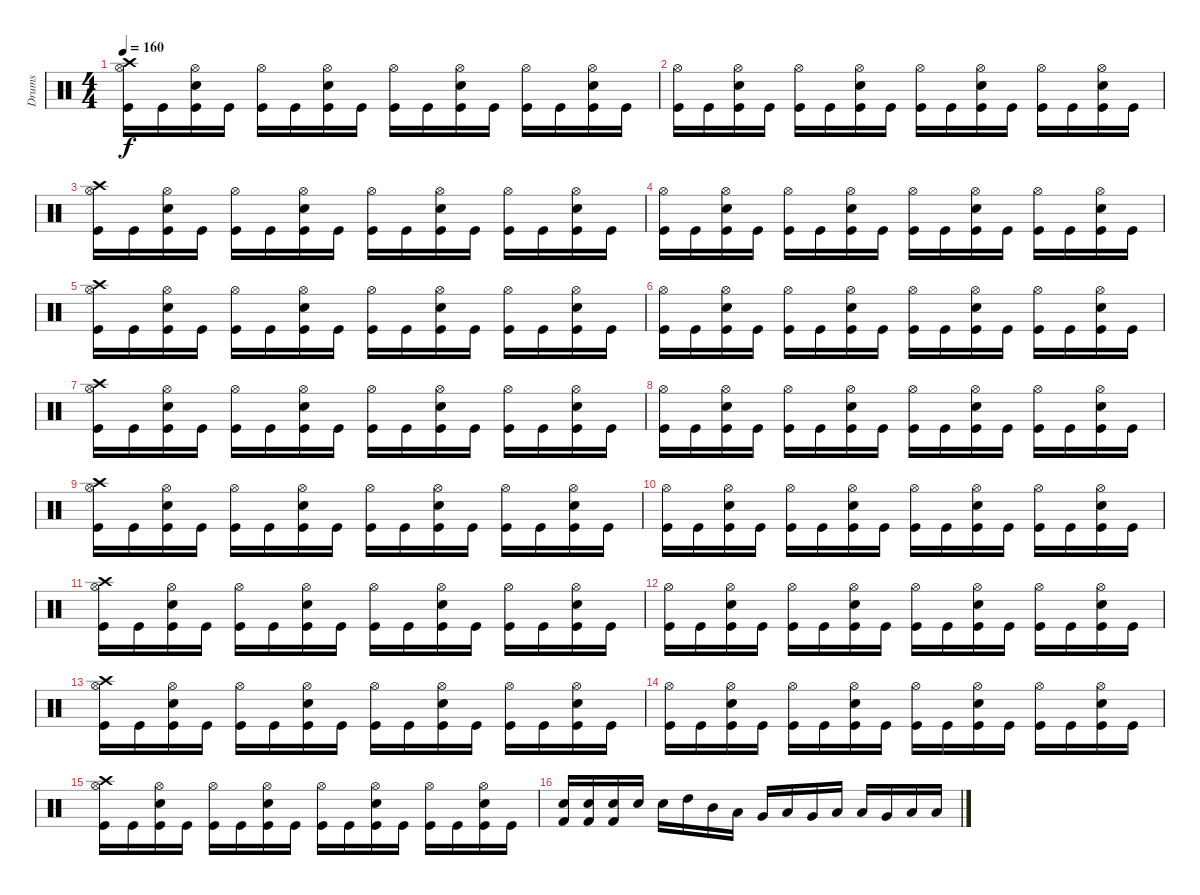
\track ("Drums" "Drums") {instrument percussion}
\staff {score}
\articulation defaults
\ts (4 4)
\tempo 160
\clef neutral
\ks c
("Crash high (hit)" "Hi-Hat (open)" "Kick (hit)").16{dy f} "Kick (hit)".16 ("Hi-Hat (open)" "Electric Snare (hit)" "Kick (hit)").16 "Kick (hit)".16 ("Hi-Hat (open)" "Kick (hit)").16 "Kick (hit)".16 ("Hi-Hat (open)" "Electric Snare (hit)" "Kick (hit)").16 "Kick (hit)".16 ("Hi-Hat (open)" "Kick (hit)").16 "Kick (hit)".16 ("Hi-Hat (open)" "Electric Snare (hit)" "Kick (hit)").16 "Kick (hit)".16 ("Hi-Hat (open)" "Kick (hit)").16 "Kick (hit)".16 ("Hi-Hat (open)" "Electric Snare (hit)" "Kick (hit)").16 "Kick (hit)".16 |
("Hi-Hat (open)" "Kick (hit)").16 "Kick (hit)".16 ("Hi-Hat (open)" "Electric Snare (hit)" "Kick (hit)").16 "Kick (hit)".16 ("Hi-Hat (open)" "Kick (hit)").16 "Kick (hit)".16 ("Hi-Hat (open)" "Electric Snare (hit)" "Kick (hit)").16 "Kick (hit)".16 ("Hi-Hat (open)" "Kick (hit)").16 "Kick (hit)".16 ("Hi-Hat (open)" "Electric Snare (hit)" "Kick (hit)").16 "Kick (hit)".16 ("Hi-Hat (open)" "Kick (hit)").16 "Kick (hit)".16 ("Hi-Hat (open)" "Electric Snare (hit)" "Kick (hit)").16 "Kick (hit)".16 |
("Crash high (hit)" "Hi-Hat (open)" "Kick (hit)").16 "Kick (hit)".16 ("Hi-Hat (open)" "Electric Snare (hit)" "Kick (hit)").16 "Kick (hit)".16 ("Hi-Hat (open)" "Kick (hit)").16 "Kick (hit)".16 ("Hi-Hat (open)" "Electric Snare (hit)" "Kick (hit)").16 "Kick (hit)".16 ("Hi-Hat (open)" "Kick (hit)").16 "Kick (hit)".16 ("Hi-Hat (open)" "Electric Snare (hit)" "Kick (hit)").16 "Kick (hit)".16 ("Hi-Hat (open)" "Kick (hit)").16 "Kick (hit)".16 ("Hi-Hat (open)" "Electric Snare (hit)" "Kick (hit)").16 "Kick (hit)".16 |
("Hi-Hat (open)" "Kick (hit)").16 "Kick (hit)".16 ("Hi-Hat (open)" "Electric Snare (hit)" "Kick (hit)").16 "Kick (hit)".16 ("Hi-Hat (open)" "Kick (hit)").16 "Kick (hit)".16 ("Hi-Hat (open)" "Electric Snare (hit)" "Kick (hit)").16 "Kick (hit)".16 ("Hi-Hat (open)" "Kick (hit)").16 "Kick (hit)".16 ("Hi-Hat (open)" "Electric Snare (hit)" "Kick (hit)").16 "Kick (hit)".16 ("Hi-Hat (open)" "Kick (hit)").16 "Kick (hit)".16 ("Hi-Hat (open)" "Electric Snare (hit)" "Kick (hit)").16 "Kick (hit)".16 |
("Crash high (hit)" "Hi-Hat (open)" "Kick (hit)").16 "Kick (hit)".16 ("Hi-Hat (open)" "Electric Snare (hit)" "Kick (hit)").16 "Kick (hit)".16 ("Hi-Hat (open)" "Kick (hit)").16 "Kick (hit)".16 ("Hi-Hat (open)" "Electric Snare (hit)" "Kick (hit)").16 "Kick (hit)".16 ("Hi-Hat (open)" "Kick (hit)").16 "Kick (hit)".16 ("Hi-Hat (open)" "Electric Snare (hit)" "Kick (hit)").16 "Kick (hit)".16 ("Hi-Hat (open)" "Kick (hit)").16 "Kick (hit)".16 ("Hi-Hat (open)" "Electric Snare (hit)" "Kick (hit)").16 "Kick (hit)".16 |
("Hi-Hat (open)" "Kick (hit)").16 "Kick (hit)".16 ("Hi-Hat (open)" "Electric Snare (hit)" "Kick (hit)").16 "Kick (hit)".16 ("Hi-Hat (open)" "Kick (hit)").16 "Kick (hit)".16 ("Hi-Hat (open)" "Electric Snare (hit)" "Kick (hit)").16 "Kick (hit)".16 ("Hi-Hat (open)" "Kick (hit)").16 "Kick (hit)".16 ("Hi-Hat (open)" "Electric Snare (hit)" "Kick (hit)").16 "Kick (hit)".16 ("Hi-Hat (open)" "Kick (hit)").16 "Kick (hit)".16 ("Hi-Hat (open)" "Electric Snare (hit)" "Kick (hit)").16 "Kick (hit)".16 |
("Crash high (hit)" "Hi-Hat (open)" "Kick (hit)").16 "Kick (hit)".16 ("Hi-Hat (open)" "Electric Snare (hit)" "Kick (hit)").16 "Kick (hit)".16 ("Hi-Hat (open)" "Kick (hit)").16 "Kick (hit)".16 ("Hi-Hat (open)" "Electric Snare (hit)" "Kick (hit)").16 "Kick (hit)".16 ("Hi-Hat (open)" "Kick (hit)").16 "Kick (hit)".16 ("Hi-Hat (open)" "Electric Snare (hit)" "Kick (hit)").16 "Kick (hit)".16 ("Hi-Hat (open)" "Kick (hit)").16 "Kick (hit)".16 ("Hi-Hat (open)" "Electric Snare (hit)" "Kick (hit)").16 "Kick (hit)".16 |
("Hi-Hat (open)" "Kick (hit)").16 "Kick (hit)".16 ("Hi-Hat (open)" "Electric Snare (hit)" "Kick (hit)").16 "Kick (hit)".16 ("Hi-Hat (open)" "Kick (hit)").16 "Kick (hit)".16 ("Hi-Hat (open)" "Electric Snare (hit)" "Kick (hit)").16 "Kick (hit)".16 ("Hi-Hat (open)" "Kick (hit)").16 "Kick (hit)".16 ("Hi-Hat (open)" "Electric Snare (hit)" "Kick (hit)").16 "Kick (hit)".16 ("Hi-Hat (open)" "Kick (hit)").16 "Kick (hit)".16 ("Hi-Hat (open)" "Electric Snare (hit)" "Kick (hit)").16 "Kick (hit)".16 |
("Crash high (hit)" "Hi-Hat (open)" "Kick (hit)").16 "Kick (hit)".16 ("Hi-Hat (open)" "Electric Snare (hit)" "Kick (hit)").16 "Kick (hit)".16 ("Hi-Hat (open)" "Kick (hit)").16 "Kick (hit)".16 ("Hi-Hat (open)" "Electric Snare (hit)" "Kick (hit)").16 "Kick (hit)".16 ("Hi-Hat (open)" "Kick (hit)").16 "Kick (hit)".16 ("Hi-Hat (open)" "Electric Snare (hit)" "Kick (hit)").16 "Kick (hit)".16 ("Hi-Hat (open)" "Kick (hit)").16 "Kick (hit)".16 ("Hi-Hat (open)" "Electric Snare (hit)" "Kick (hit)").16 "Kick (hit)".16 |
("Hi-Hat (open)" "Kick (hit)").16 "Kick (hit)".16 ("Hi-Hat (open)" "Electric Snare (hit)" "Kick (hit)").16 "Kick (hit)".16 ("Hi-Hat (open)" "Kick (hit)").16 "Kick (hit)".16 ("Hi-Hat (open)" "Electric Snare (hit)" "Kick (hit)").16 "Kick (hit)".16 ("Hi-Hat (open)" "Kick (hit)").16 "Kick (hit)".16 ("Hi-Hat (open)" "Electric Snare (hit)" "Kick (hit)").16 "Kick (hit)".16 ("Hi-Hat (open)" "Kick (hit)").16 "Kick (hit)".16 ("Hi-Hat (open)" "Electric Snare (hit)" "Kick (hit)").16 "Kick (hit)".16 |
("Crash high (hit)" "Hi-Hat (open)" "Kick (hit)").16 "Kick (hit)".16 ("Hi-Hat (open)" "Electric Snare (hit)" "Kick (hit)").16 "Kick (hit)".16 ("Hi-Hat (open)" "Kick (hit)").16 "Kick (hit)".16 ("Hi-Hat (open)" "Electric Snare (hit)" "Kick (hit)").16 "Kick (hit)".16 ("Hi-Hat (open)" "Kick (hit)").16 "Kick (hit)".16 ("Hi-Hat (open)" "Electric Snare (hit)" "Kick (hit)").16 "Kick (hit)".16 ("Hi-Hat (open)" "Kick (hit)").16 "Kick (hit)".16 ("Hi-Hat (open)" "Electric Snare (hit)" "Kick (hit)").16 "Kick (hit)".16 |
("Hi-Hat (open)" "Kick (hit)").16 "Kick (hit)".16 ("Hi-Hat (open)" "Electric Snare (hit)" "Kick (hit)").16 "Kick (hit)".16 ("Hi-Hat (open)" "Kick (hit)").16 "Kick (hit)".16 ("Hi-Hat (open)" "Electric Snare (hit)" "Kick (hit)").16 "Kick (hit)".16 ("Hi-Hat (open)" "Kick (hit)").16 "Kick (hit)".16 ("Hi-Hat (open)" "Electric Snare (hit)" "Kick (hit)").16 "Kick (hit)".16 ("Hi-Hat (open)" "Kick (hit)").16 "Kick (hit)".16 ("Hi-Hat (open)" "Electric Snare (hit)" "Kick (hit)").16 "Kick (hit)".16 |
("Crash high (hit)" "Hi-Hat (open)" "Kick (hit)").16 "Kick (hit)".16 ("Hi-Hat (open)" "Electric Snare (hit)" "Kick (hit)").16 "Kick (hit)".16 ("Hi-Hat (open)" "Kick (hit)").16 "Kick (hit)".16 ("Hi-Hat (open)" "Electric Snare (hit)" "Kick (hit)").16 "Kick (hit)".16 ("Hi-Hat (open)" "Kick (hit)").16 "Kick (hit)".16 ("Hi-Hat (open)" "Electric Snare (hit)" "Kick (hit)").16 "Kick (hit)".16 ("Hi-Hat (open)" "Kick (hit)").16 "Kick (hit)".16 ("Hi-Hat (open)" "Electric Snare (hit)" "Kick (hit)").16 "Kick (hit)".16 |
("Hi-Hat (open)" "Kick (hit)").16 "Kick (hit)".16 ("Hi-Hat (open)" "Electric Snare (hit)" "Kick (hit)").16 "Kick (hit)".16 ("Hi-Hat (open)" "Kick (hit)").16 "Kick (hit)".16 ("Hi-Hat (open)" "Electric Snare (hit)" "Kick (hit)").16 "Kick (hit)".16 ("Hi-Hat (open)" "Kick (hit)").16 "Kick (hit)".16 ("Hi-Hat (open)" "Electric Snare (hit)" "Kick (hit)").16 "Kick (hit)".16 ("Hi-Hat (open)" "Kick (hit)").16 "Kick (hit)".16 ("Hi-Hat (open)" "Electric Snare (hit)" "Kick (hit)").16 "Kick (hit)".16 |
("Crash high (hit)" "Hi-Hat (open)" "Kick (hit)").16 "Kick (hit)".16 ("Hi-Hat (open)" "Electric Snare (hit)" "Kick (hit)").16 "Kick (hit)".16 ("Hi-Hat (open)" "Kick (hit)").16 "Kick (hit)".16 ("Hi-Hat (open)" "Electric Snare (hit)" "Kick (hit)").16 "Kick (hit)".16 ("Hi-Hat (open)" "Kick (hit)").16 "Kick (hit)".16 ("Hi-Hat (open)" "Electric Snare (hit)" "Kick (hit)").16 "Kick (hit)".16 ("Hi-Hat (open)" "Kick (hit)").16 "Kick (hit)".16 ("Hi-Hat (open)" "Electric Snare (hit)" "Kick (hit)").16 "Kick (hit)".16 |
("Snare (hit) 2" "Kick (hit) 2").16 ("Electric Snare (hit)" "Kick (hit) 2").16 ("Electric Snare (hit)" "Kick (hit) 2").16 "Snare (hit) 2".16 "Snare (hit) 2".16 "High Tom (hit)".16 "Mid Tom (hit)".16 "Low Tom (hit)".16 "Very Low Tom (hit)".16 "Low Tom (hit)".16 "Very Low Tom (hit)".16 "Low Floor Tom (hit)".16 "Low Tom (hit)".16 "Very Low Tom (hit)".16 "Low Floor Tom (hit)".16 "Low Floor Tom (hit)".16
